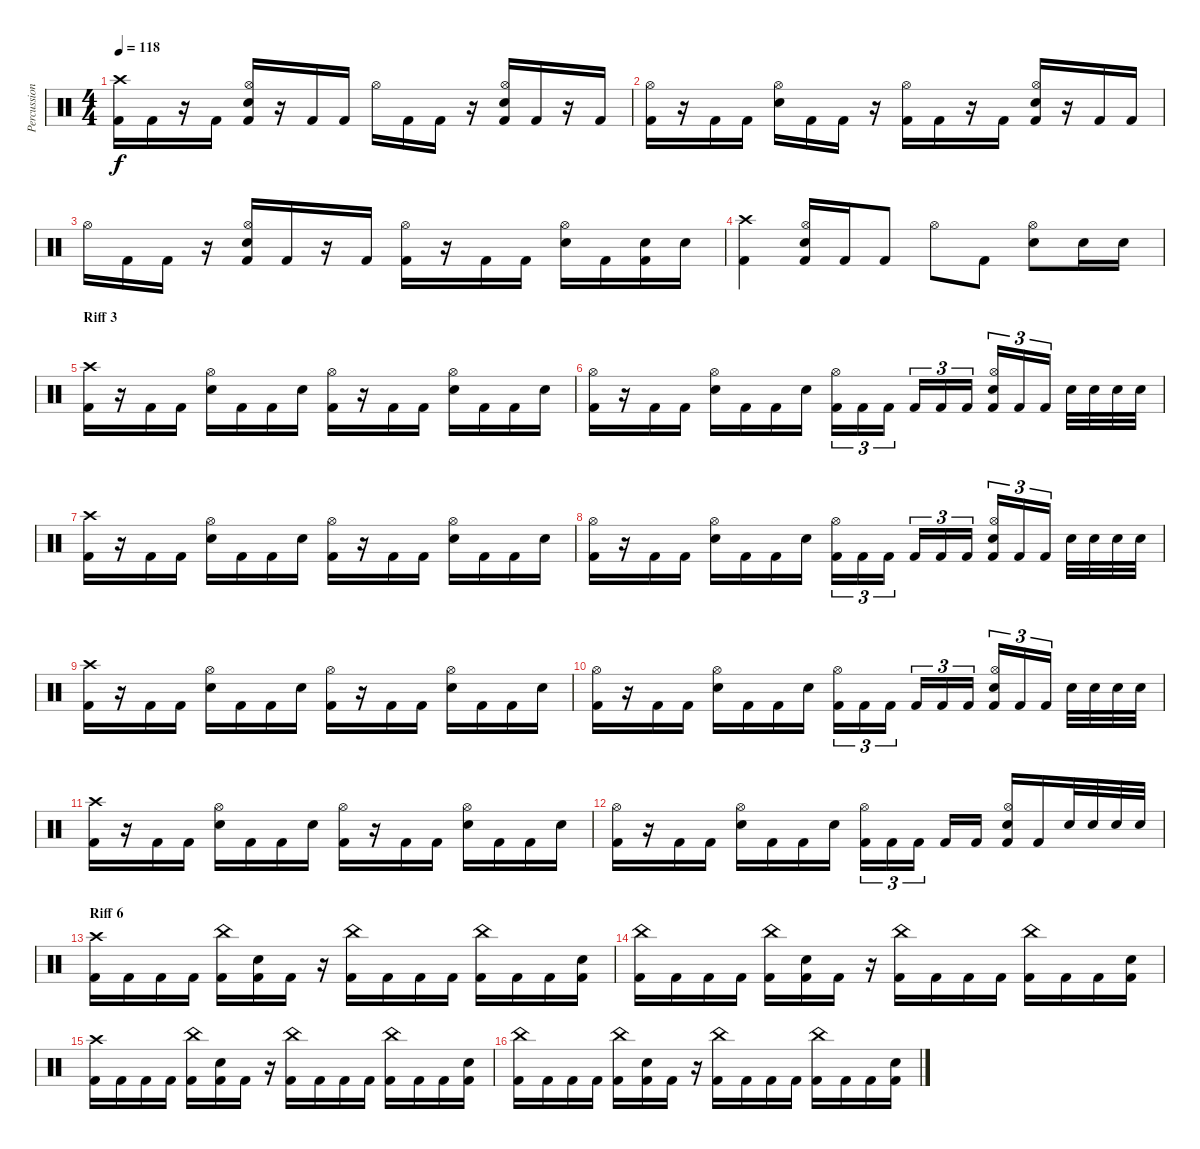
\track ("Percussion" "Percussion") {instrument percussion}
\staff {score}
\articulation defaults
\ts (4 4)
\tempo 118
\clef neutral
\ks c
("Crash high (hit)" "Kick (hit) 2").16{dy f} "Kick (hit) 2".16 r.16 "Kick (hit) 2".16 ("Hi-Hat (open)" "Electric Snare (hit)" "Kick (hit) 2").16 r.16 "Kick (hit) 2".16 "Kick (hit) 2".16 "Hi-Hat (open)".16 "Kick (hit) 2".16 "Kick (hit) 2".16 r.16 ("Hi-Hat (open)" "Electric Snare (hit)" "Kick (hit) 2").16 "Kick (hit) 2".16 r.16 "Kick (hit) 2".16 |
("Hi-Hat (open)" "Kick (hit) 2").16 r.16 "Kick (hit) 2".16 "Kick (hit) 2".16 ("Hi-Hat (open)" "Electric Snare (hit)").16 "Kick (hit) 2".16 "Kick (hit) 2".16 r.16 ("Hi-Hat (open)" "Kick (hit) 2").16 "Kick (hit) 2".16 r.16 "Kick (hit) 2".16 ("Hi-Hat (open)" "Electric Snare (hit)" "Kick (hit) 2").16 r.16 "Kick (hit) 2".16 "Kick (hit) 2".16 |
"Hi-Hat (open)".16 "Kick (hit) 2".16 "Kick (hit) 2".16 r.16 ("Hi-Hat (open)" "Electric Snare (hit)" "Kick (hit) 2").16 "Kick (hit) 2".16 r.16 "Kick (hit) 2".16 ("Hi-Hat (open)" "Kick (hit) 2").16 r.16 "Kick (hit) 2".16 "Kick (hit) 2".16 ("Hi-Hat (open)" "Electric Snare (hit)").16 "Kick (hit) 2".16 ("Electric Snare (hit)" "Kick (hit) 2").16 "Electric Snare (hit)".16 |
("Crash high (hit)" "Kick (hit) 2").4 ("Hi-Hat (open)" "Electric Snare (hit)" "Kick (hit) 2").16 "Kick (hit) 2".16 "Kick (hit) 2".8 "Hi-Hat (open)".8 "Kick (hit) 2".8 ("Hi-Hat (open)" "Electric Snare (hit)").8 "Electric Snare (hit)".16 "Electric Snare (hit)".16 |
\section ("" "Riff 3")
("Crash high (hit)" "Kick (hit) 2").16 r.16 "Kick (hit) 2".16 "Kick (hit) 2".16 ("Hi-Hat (open)" "Electric Snare (hit)").16 "Kick (hit) 2".16 "Kick (hit) 2".16 "Electric Snare (hit)".16 ("Hi-Hat (open)" "Kick (hit) 2").16 r.16 "Kick (hit) 2".16 "Kick (hit) 2".16 ("Hi-Hat (open)" "Electric Snare (hit)").16 "Kick (hit) 2".16 "Kick (hit) 2".16 "Electric Snare (hit)".16 |
("Hi-Hat (open)" "Kick (hit) 2").16 r.16 "Kick (hit) 2".16 "Kick (hit) 2".16 ("Hi-Hat (open)" "Electric Snare (hit)").16 "Kick (hit) 2".16 "Kick (hit) 2".16 "Electric Snare (hit)".16 ("Hi-Hat (open)" "Kick (hit) 2").16{tu (3 2)} "Kick (hit) 2".16{tu (3 2)} "Kick (hit) 2".16{tu (3 2)} "Kick (hit) 2".16{tu (3 2)} "Kick (hit) 2".16{tu (3 2)} "Kick (hit) 2".16{tu (3 2)} ("Hi-Hat (open)" "Electric Snare (hit)" "Kick (hit) 2").16{tu (3 2)} "Kick (hit) 2".16{tu (3 2)} "Kick (hit) 2".16{tu (3 2)} "Electric Snare (hit)".32 "Electric Snare (hit)".32 "Electric Snare (hit)".32 "Electric Snare (hit)".32 |
("Crash high (hit)" "Kick (hit) 2").16 r.16 "Kick (hit) 2".16 "Kick (hit) 2".16 ("Hi-Hat (open)" "Electric Snare (hit)").16 "Kick (hit) 2".16 "Kick (hit) 2".16 "Electric Snare (hit)".16 ("Hi-Hat (open)" "Kick (hit) 2").16 r.16 "Kick (hit) 2".16 "Kick (hit) 2".16 ("Hi-Hat (open)" "Electric Snare (hit)").16 "Kick (hit) 2".16 "Kick (hit) 2".16 "Electric Snare (hit)".16 |
("Hi-Hat (open)" "Kick (hit) 2").16 r.16 "Kick (hit) 2".16 "Kick (hit) 2".16 ("Hi-Hat (open)" "Electric Snare (hit)").16 "Kick (hit) 2".16 "Kick (hit) 2".16 "Electric Snare (hit)".16 ("Hi-Hat (open)" "Kick (hit) 2").16{tu (3 2)} "Kick (hit) 2".16{tu (3 2)} "Kick (hit) 2".16{tu (3 2)} "Kick (hit) 2".16{tu (3 2)} "Kick (hit) 2".16{tu (3 2)} "Kick (hit) 2".16{tu (3 2)} ("Hi-Hat (open)" "Electric Snare (hit)" "Kick (hit) 2").16{tu (3 2)} "Kick (hit) 2".16{tu (3 2)} "Kick (hit) 2".16{tu (3 2)} "Electric Snare (hit)".32 "Electric Snare (hit)".32 "Electric Snare (hit)".32 "Electric Snare (hit)".32 |
("Crash high (hit)" "Kick (hit) 2").16 r.16 "Kick (hit) 2".16 "Kick (hit) 2".16 ("Hi-Hat (open)" "Electric Snare (hit)").16 "Kick (hit) 2".16 "Kick (hit) 2".16 "Electric Snare (hit)".16 ("Hi-Hat (open)" "Kick (hit) 2").16 r.16 "Kick (hit) 2".16 "Kick (hit) 2".16 ("Hi-Hat (open)" "Electric Snare (hit)").16 "Kick (hit) 2".16 "Kick (hit) 2".16 "Electric Snare (hit)".16 |
("Hi-Hat (open)" "Kick (hit) 2").16 r.16 "Kick (hit) 2".16 "Kick (hit) 2".16 ("Hi-Hat (open)" "Electric Snare (hit)").16 "Kick (hit) 2".16 "Kick (hit) 2".16 "Electric Snare (hit)".16 ("Hi-Hat (open)" "Kick (hit) 2").16{tu (3 2)} "Kick (hit) 2".16{tu (3 2)} "Kick (hit) 2".16{tu (3 2)} "Kick (hit) 2".16{tu (3 2)} "Kick (hit) 2".16{tu (3 2)} "Kick (hit) 2".16{tu (3 2)} ("Hi-Hat (open)" "Electric Snare (hit)" "Kick (hit) 2").16{tu (3 2)} "Kick (hit) 2".16{tu (3 2)} "Kick (hit) 2".16{tu (3 2)} "Electric Snare (hit)".32 "Electric Snare (hit)".32 "Electric Snare (hit)".32 "Electric Snare (hit)".32 |
("Crash high (hit)" "Kick (hit) 2").16 r.16 "Kick (hit) 2".16 "Kick (hit) 2".16 ("Hi-Hat (open)" "Electric Snare (hit)").16 "Kick (hit) 2".16 "Kick (hit) 2".16 "Electric Snare (hit)".16 ("Hi-Hat (open)" "Kick (hit) 2").16 r.16 "Kick (hit) 2".16 "Kick (hit) 2".16 ("Hi-Hat (open)" "Electric Snare (hit)").16 "Kick (hit) 2".16 "Kick (hit) 2".16 "Electric Snare (hit)".16 |
("Hi-Hat (open)" "Kick (hit) 2").16 r.16 "Kick (hit) 2".16 "Kick (hit) 2".16 ("Hi-Hat (open)" "Electric Snare (hit)").16 "Kick (hit) 2".16 "Kick (hit) 2".16 "Electric Snare (hit)".16 ("Hi-Hat (open)" "Kick (hit) 2").16{tu (3 2)} "Kick (hit) 2".16{tu (3 2)} "Kick (hit) 2".16{tu (3 2)} "Kick (hit) 2".16 "Kick (hit) 2".16 ("Hi-Hat (open)" "Electric Snare (hit)" "Kick (hit) 2").16 "Kick (hit) 2".16 "Electric Snare (hit)".32 "Electric Snare (hit)".32 "Electric Snare (hit)".32 "Electric Snare (hit)".32 |
\section ("" "Riff 6")
("Crash high (hit)" "Kick (hit) 2").16 "Kick (hit) 2".16 "Kick (hit) 2".16 "Kick (hit) 2".16 ("China (hit)" "Kick (hit) 2").16 ("Electric Snare (hit)" "Kick (hit) 2").16 "Kick (hit) 2".16 r.16 ("China (hit)" "Kick (hit) 2").16 "Kick (hit) 2".16 "Kick (hit) 2".16 "Kick (hit) 2".16 ("China (hit)" "Kick (hit) 2").16 "Kick (hit) 2".16 "Kick (hit) 2".16 ("Electric Snare (hit)" "Kick (hit) 2").16 |
("China (hit)" "Kick (hit) 2").16 "Kick (hit) 2".16 "Kick (hit) 2".16 "Kick (hit) 2".16 ("China (hit)" "Kick (hit) 2").16 ("Electric Snare (hit)" "Kick (hit) 2").16 "Kick (hit) 2".16 r.16 ("China (hit)" "Kick (hit) 2").16 "Kick (hit) 2".16 "Kick (hit) 2".16 "Kick (hit) 2".16 ("China (hit)" "Kick (hit) 2").16 "Kick (hit) 2".16 "Kick (hit) 2".16 ("Electric Snare (hit)" "Kick (hit) 2").16 |
("Crash high (hit)" "Kick (hit) 2").16 "Kick (hit) 2".16 "Kick (hit) 2".16 "Kick (hit) 2".16 ("China (hit)" "Kick (hit) 2").16 ("Electric Snare (hit)" "Kick (hit) 2").16 "Kick (hit) 2".16 r.16 ("China (hit)" "Kick (hit) 2").16 "Kick (hit) 2".16 "Kick (hit) 2".16 "Kick (hit) 2".16 ("China (hit)" "Kick (hit) 2").16 "Kick (hit) 2".16 "Kick (hit) 2".16 ("Electric Snare (hit)" "Kick (hit) 2").16 |
("China (hit)" "Kick (hit) 2").16 "Kick (hit) 2".16 "Kick (hit) 2".16 "Kick (hit) 2".16 ("China (hit)" "Kick (hit) 2").16 ("Electric Snare (hit)" "Kick (hit) 2").16 "Kick (hit) 2".16 r.16 ("China (hit)" "Kick (hit) 2").16 "Kick (hit) 2".16 "Kick (hit) 2".16 "Kick (hit) 2".16 ("China (hit)" "Kick (hit) 2").16 "Kick (hit) 2".16 "Kick (hit) 2".16 ("Electric Snare (hit)" "Kick (hit) 2").16
